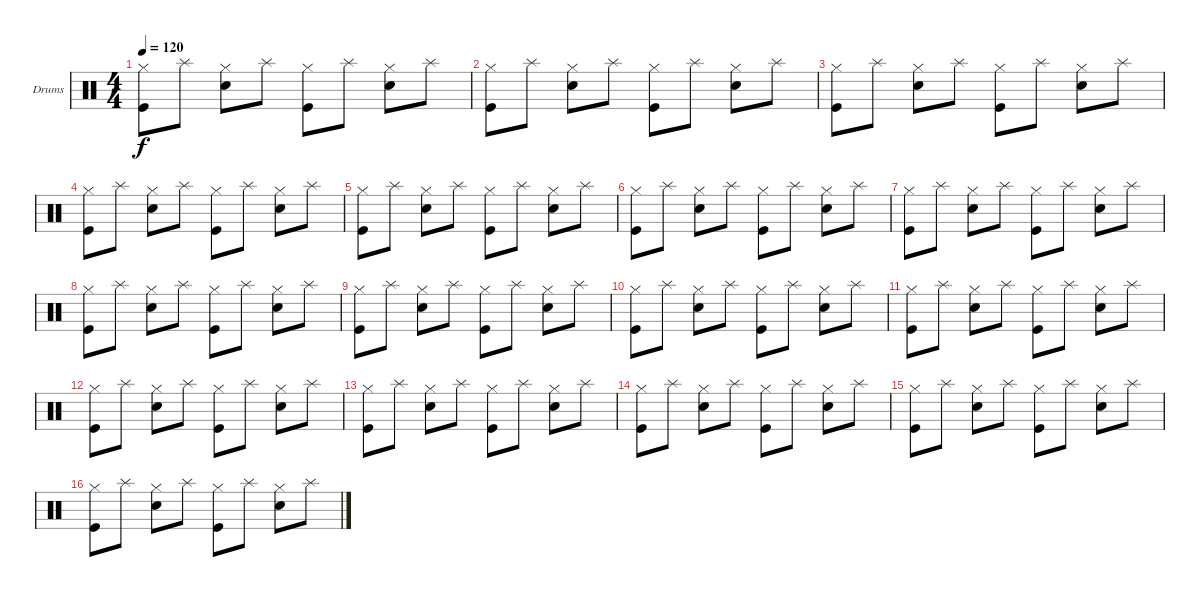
\bracketExtendMode groupsimilarinstruments
\firstSystemTrackNameOrientation horizontal
\otherSystemsTrackNameOrientation horizontal
\track ("Drumkit" "Drums") {instrument percussion}
\staff {score}
\articulation defaults
\ts (4 4)
\tempo 120
\clef neutral
\scale
0.333333
\ks c
("Kick (hit)" "Hi-Hat (closed)").8{dy f} "Splash (hit)".8 ("Snare (hit) 2" "Hi-Hat (closed)").8 "Splash (hit)".8 ("Kick (hit)" "Hi-Hat (closed)").8 "Splash (hit)".8 ("Snare (hit) 2" "Hi-Hat (closed)").8 "Splash (hit)".8 |
\scale
0.333333 ("Kick (hit)" "Hi-Hat (closed)").8 "Splash (hit)".8 ("Snare (hit) 2" "Hi-Hat (closed)").8 "Splash (hit)".8 ("Kick (hit)" "Hi-Hat (closed)").8 "Splash (hit)".8 ("Snare (hit) 2" "Hi-Hat (closed)").8 "Splash (hit)".8 |
\scale
0.333333 ("Kick (hit)" "Hi-Hat (closed)").8 "Splash (hit)".8 ("Snare (hit) 2" "Hi-Hat (closed)").8 "Splash (hit)".8 ("Kick (hit)" "Hi-Hat (closed)").8 "Splash (hit)".8 ("Snare (hit) 2" "Hi-Hat (closed)").8 "Splash (hit)".8 |
\scale
0.333333 ("Kick (hit)" "Hi-Hat (closed)").8 "Splash (hit)".8 ("Snare (hit) 2" "Hi-Hat (closed)").8 "Splash (hit)".8 ("Kick (hit)" "Hi-Hat (closed)").8 "Splash (hit)".8 ("Snare (hit) 2" "Hi-Hat (closed)").8 "Splash (hit)".8 |
\scale
0.333333 ("Kick (hit)" "Hi-Hat (closed)").8 "Splash (hit)".8 ("Snare (hit) 2" "Hi-Hat (closed)").8 "Splash (hit)".8 ("Kick (hit)" "Hi-Hat (closed)").8 "Splash (hit)".8 ("Snare (hit) 2" "Hi-Hat (closed)").8 "Splash (hit)".8 |
\scale
0.333333 ("Kick (hit)" "Hi-Hat (closed)").8 "Splash (hit)".8 ("Snare (hit) 2" "Hi-Hat (closed)").8 "Splash (hit)".8 ("Kick (hit)" "Hi-Hat (closed)").8 "Splash (hit)".8 ("Snare (hit) 2" "Hi-Hat (closed)").8 "Splash (hit)".8 |
\scale
0.333333 ("Kick (hit)" "Hi-Hat (closed)").8 "Splash (hit)".8 ("Snare (hit) 2" "Hi-Hat (closed)").8 "Splash (hit)".8 ("Kick (hit)" "Hi-Hat (closed)").8 "Splash (hit)".8 ("Snare (hit) 2" "Hi-Hat (closed)").8 "Splash (hit)".8 |
("Kick (hit)" "Hi-Hat (closed)").8 "Splash (hit)".8 ("Snare (hit) 2" "Hi-Hat (closed)").8 "Splash (hit)".8 ("Kick (hit)" "Hi-Hat (closed)").8 "Splash (hit)".8 ("Snare (hit) 2" "Hi-Hat (closed)").8 "Splash (hit)".8 |
("Kick (hit)" "Hi-Hat (closed)").8 "Splash (hit)".8 ("Snare (hit) 2" "Hi-Hat (closed)").8 "Splash (hit)".8 ("Kick (hit)" "Hi-Hat (closed)").8 "Splash (hit)".8 ("Snare (hit) 2" "Hi-Hat (closed)").8 "Splash (hit)".8 |
("Kick (hit)" "Hi-Hat (closed)").8 "Splash (hit)".8 ("Snare (hit) 2" "Hi-Hat (closed)").8 "Splash (hit)".8 ("Kick (hit)" "Hi-Hat (closed)").8 "Splash (hit)".8 ("Snare (hit) 2" "Hi-Hat (closed)").8 "Splash (hit)".8 |
("Kick (hit)" "Hi-Hat (closed)").8 "Splash (hit)".8 ("Snare (hit) 2" "Hi-Hat (closed)").8 "Splash (hit)".8 ("Kick (hit)" "Hi-Hat (closed)").8 "Splash (hit)".8 ("Snare (hit) 2" "Hi-Hat (closed)").8 "Splash (hit)".8 |
("Kick (hit)" "Hi-Hat (closed)").8 "Splash (hit)".8 ("Snare (hit) 2" "Hi-Hat (closed)").8 "Splash (hit)".8 ("Kick (hit)" "Hi-Hat (closed)").8 "Splash (hit)".8 ("Snare (hit) 2" "Hi-Hat (closed)").8 "Splash (hit)".8 |
("Kick (hit)" "Hi-Hat (closed)").8 "Splash (hit)".8 ("Snare (hit) 2" "Hi-Hat (closed)").8 "Splash (hit)".8 ("Kick (hit)" "Hi-Hat (closed)").8 "Splash (hit)".8 ("Snare (hit) 2" "Hi-Hat (closed)").8 "Splash (hit)".8 |
("Kick (hit)" "Hi-Hat (closed)").8 "Splash (hit)".8 ("Snare (hit) 2" "Hi-Hat (closed)").8 "Splash (hit)".8 ("Kick (hit)" "Hi-Hat (closed)").8 "Splash (hit)".8 ("Snare (hit) 2" "Hi-Hat (closed)").8 "Splash (hit)".8 |
("Kick (hit)" "Hi-Hat (closed)").8 "Splash (hit)".8 ("Snare (hit) 2" "Hi-Hat (closed)").8 "Splash (hit)".8 ("Kick (hit)" "Hi-Hat (closed)").8 "Splash (hit)".8 ("Snare (hit) 2" "Hi-Hat (closed)").8 "Splash (hit)".8 |
("Kick (hit)" "Hi-Hat (closed)").8 "Splash (hit)".8 ("Snare (hit) 2" "Hi-Hat (closed)").8 "Splash (hit)".8 ("Kick (hit)" "Hi-Hat (closed)").8 "Splash (hit)".8 ("Snare (hit) 2" "Hi-Hat (closed)").8 "Splash (hit)".8
